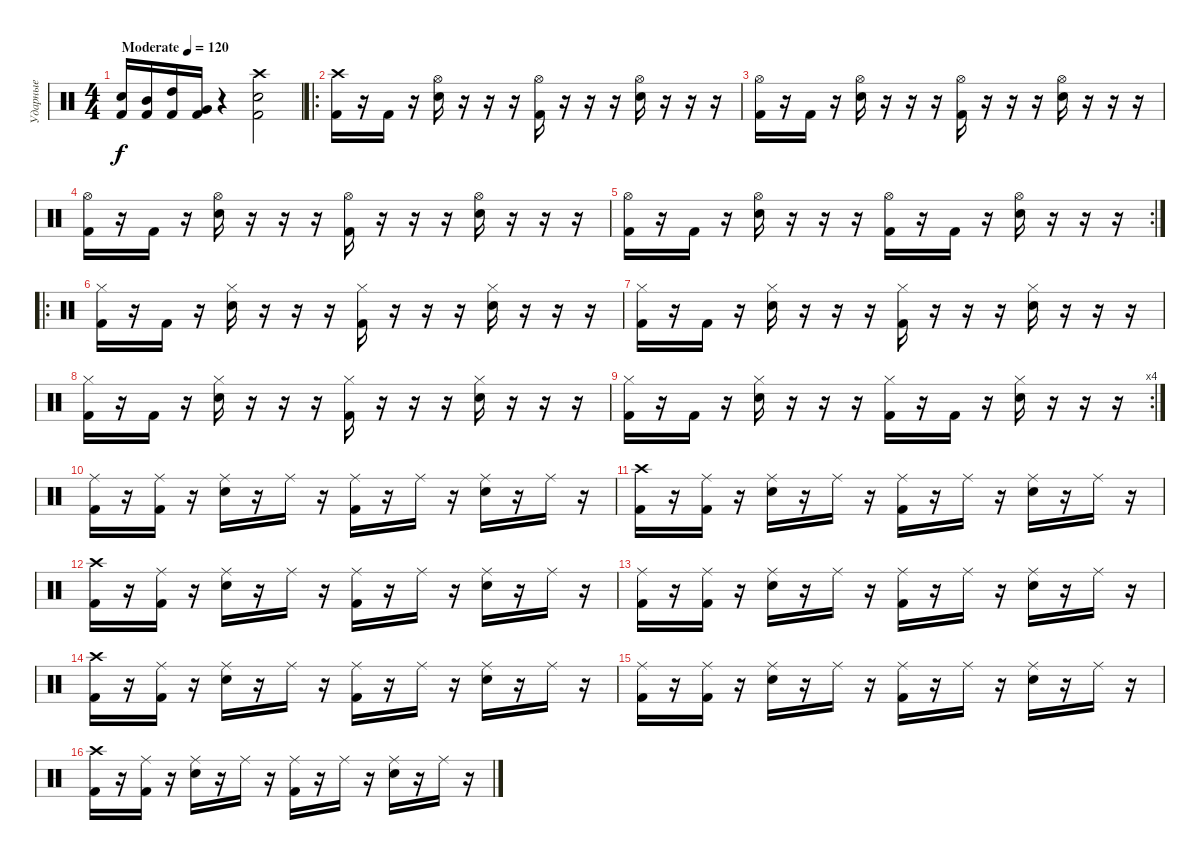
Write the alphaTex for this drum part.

\track ("Ударные" "Ударные") {instrument percussion}
\staff {score}
\articulation defaults
\ts (4 4)
\tempo (120 "Moderate")
\clef neutral
\ks c
("Kick (hit) 2" "Snare (hit) 2").16{dy f} ("Kick (hit) 2" "Mid Tom (hit)").16 ("Kick (hit) 2" "High Tom (hit)").16 ("Kick (hit) 2" "Very Low Tom (hit)").16 r.4 ("Crash high (hit)" "Kick (hit) 2" "Snare (hit) 2").2 |
\ro
("Kick (hit) 2" "Crash high (hit)").16 r.16 "Kick (hit) 2".16 r.16 ("Snare (hit) 2" "Hi-Hat (open)").16 r.16 r.16 r.16 ("Kick (hit) 2" "Hi-Hat (open)").16 r.16 r.16 r.16 ("Snare (hit) 2" "Hi-Hat (open)").16 r.16 r.16 r.16 |
("Kick (hit) 2" "Hi-Hat (open)").16 r.16 "Kick (hit) 2".16 r.16 ("Snare (hit) 2" "Hi-Hat (open)").16 r.16 r.16 r.16 ("Kick (hit) 2" "Hi-Hat (open)").16 r.16 r.16 r.16 ("Snare (hit) 2" "Hi-Hat (open)").16 r.16 r.16 r.16 |
("Kick (hit) 2" "Hi-Hat (open)").16 r.16 "Kick (hit) 2".16 r.16 ("Snare (hit) 2" "Hi-Hat (open)").16 r.16 r.16 r.16 ("Kick (hit) 2" "Hi-Hat (open)").16 r.16 r.16 r.16 ("Snare (hit) 2" "Hi-Hat (open)").16 r.16 r.16 r.16 |
\rc 2
("Kick (hit) 2" "Hi-Hat (open)").16 r.16 "Kick (hit) 2".16 r.16 ("Snare (hit) 2" "Hi-Hat (open)").16 r.16 r.16 r.16 ("Kick (hit) 2" "Hi-Hat (open)").16 r.16 "Kick (hit) 2".16 r.16 ("Snare (hit) 2" "Hi-Hat (open)").16 r.16 r.16 r.16 |
\ro
("Kick (hit) 2" "Hi-Hat (closed)").16 r.16 "Kick (hit) 2".16 r.16 ("Snare (hit) 2" "Hi-Hat (closed)").16 r.16 r.16 r.16 ("Kick (hit) 2" "Hi-Hat (closed)").16 r.16 r.16 r.16 ("Snare (hit) 2" "Hi-Hat (closed)").16 r.16 r.16 r.16 |
("Kick (hit) 2" "Hi-Hat (closed)").16 r.16 "Kick (hit) 2".16 r.16 ("Snare (hit) 2" "Hi-Hat (closed)").16 r.16 r.16 r.16 ("Kick (hit) 2" "Hi-Hat (closed)").16 r.16 r.16 r.16 ("Snare (hit) 2" "Hi-Hat (closed)").16 r.16 r.16 r.16 |
("Kick (hit) 2" "Hi-Hat (closed)").16 r.16 "Kick (hit) 2".16 r.16 ("Snare (hit) 2" "Hi-Hat (closed)").16 r.16 r.16 r.16 ("Kick (hit) 2" "Hi-Hat (closed)").16 r.16 r.16 r.16 ("Snare (hit) 2" "Hi-Hat (closed)").16 r.16 r.16 r.16 |
\rc 4
("Kick (hit) 2" "Hi-Hat (closed)").16 r.16 "Kick (hit) 2".16 r.16 ("Snare (hit) 2" "Hi-Hat (closed)").16 r.16 r.16 r.16 ("Kick (hit) 2" "Hi-Hat (closed)").16 r.16 "Kick (hit) 2".16 r.16 ("Snare (hit) 2" "Hi-Hat (closed)").16 r.16 r.16 r.16 |
("Kick (hit) 2" "Ride (middle)").16 r.16 ("Kick (hit) 2" "Ride (middle)").16 r.16 ("Snare (hit) 2" "Ride (middle)").16 r.16 "Ride (middle)".16 r.16 ("Kick (hit) 2" "Ride (middle)").16 r.16 "Ride (middle)".16 r.16 ("Snare (hit) 2" "Ride (middle)").16 r.16 "Ride (middle)".16 r.16 |
("Kick (hit) 2" "Crash high (hit)").16 r.16 ("Kick (hit) 2" "Ride (middle)").16 r.16 ("Snare (hit) 2" "Ride (middle)").16 r.16 "Ride (middle)".16 r.16 ("Kick (hit) 2" "Ride (middle)").16 r.16 "Ride (middle)".16 r.16 ("Snare (hit) 2" "Ride (middle)").16 r.16 "Ride (middle)".16 r.16 |
("Kick (hit) 2" "Crash high (hit)").16 r.16 ("Kick (hit) 2" "Ride (middle)").16 r.16 ("Snare (hit) 2" "Ride (middle)").16 r.16 "Ride (middle)".16 r.16 ("Kick (hit) 2" "Ride (middle)").16 r.16 "Ride (middle)".16 r.16 ("Snare (hit) 2" "Ride (middle)").16 r.16 "Ride (middle)".16 r.16 |
("Kick (hit) 2" "Ride (middle)").16 r.16 ("Kick (hit) 2" "Ride (middle)").16 r.16 ("Snare (hit) 2" "Ride (middle)").16 r.16 "Ride (middle)".16 r.16 ("Kick (hit) 2" "Ride (middle)").16 r.16 "Ride (middle)".16 r.16 ("Snare (hit) 2" "Ride (middle)").16 r.16 "Ride (middle)".16 r.16 |
("Kick (hit) 2" "Crash high (hit)").16 r.16 ("Kick (hit) 2" "Ride (middle)").16 r.16 ("Snare (hit) 2" "Ride (middle)").16 r.16 "Ride (middle)".16 r.16 ("Kick (hit) 2" "Ride (middle)").16 r.16 "Ride (middle)".16 r.16 ("Snare (hit) 2" "Ride (middle)").16 r.16 "Ride (middle)".16 r.16 |
("Kick (hit) 2" "Ride (middle)").16 r.16 ("Kick (hit) 2" "Ride (middle)").16 r.16 ("Snare (hit) 2" "Ride (middle)").16 r.16 "Ride (middle)".16 r.16 ("Kick (hit) 2" "Ride (middle)").16 r.16 "Ride (middle)".16 r.16 ("Snare (hit) 2" "Ride (middle)").16 r.16 "Ride (middle)".16 r.16 |
("Kick (hit) 2" "Crash high (hit)").16 r.16 ("Kick (hit) 2" "Ride (middle)").16 r.16 ("Snare (hit) 2" "Ride (middle)").16 r.16 "Ride (middle)".16 r.16 ("Kick (hit) 2" "Ride (middle)").16 r.16 "Ride (middle)".16 r.16 ("Snare (hit) 2" "Ride (middle)").16 r.16 "Ride (middle)".16 r.16
